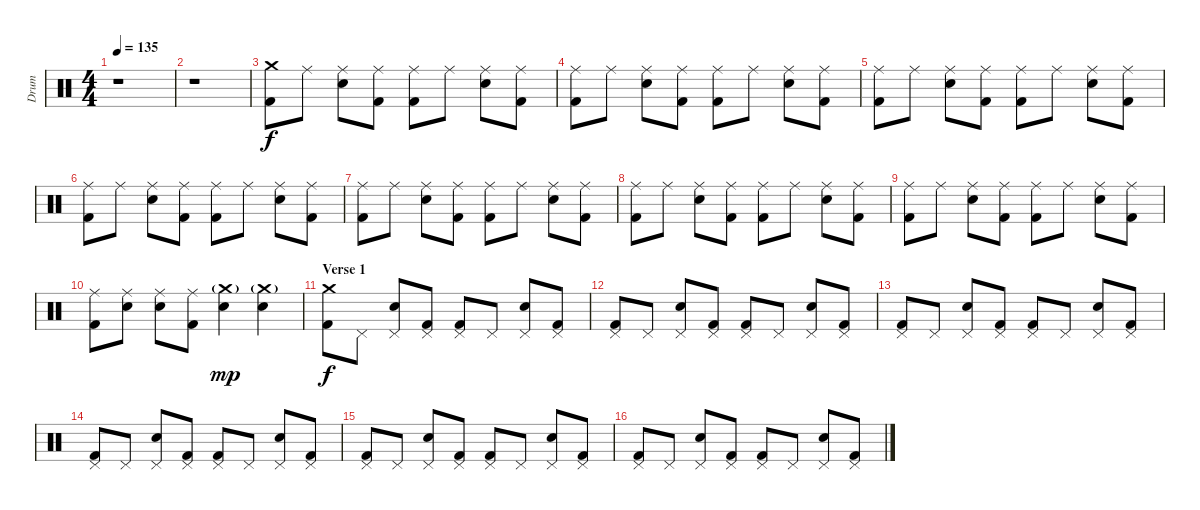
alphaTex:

\track ("Drum" "Drum") {instrument percussion}
\staff {score}
\articulation defaults
\ts (4 4)
\tempo 135
\clef neutral
\ks c
r.1{dy f} |
r.1 |
("Crash medium (hit)" "Kick (hit) 2").8 "Ride (middle)".8 ("Ride (middle)" "Snare (hit) 2").8 ("Ride (middle)" "Kick (hit) 2").8 ("Ride (middle)" "Kick (hit) 2").8 "Ride (middle)".8 ("Ride (middle)" "Snare (hit) 2").8 ("Ride (middle)" "Kick (hit) 2").8 |
("Ride (middle)" "Kick (hit) 2").8 "Ride (middle)".8 ("Ride (middle)" "Snare (hit) 2").8 ("Ride (middle)" "Kick (hit) 2").8 ("Ride (middle)" "Kick (hit) 2").8 "Ride (middle)".8 ("Ride (middle)" "Snare (hit) 2").8 ("Ride (middle)" "Kick (hit) 2").8 |
("Ride (middle)" "Kick (hit) 2").8 "Ride (middle)".8 ("Ride (middle)" "Snare (hit) 2").8 ("Ride (middle)" "Kick (hit) 2").8 ("Ride (middle)" "Kick (hit) 2").8 "Ride (middle)".8 ("Ride (middle)" "Snare (hit) 2").8 ("Ride (middle)" "Kick (hit) 2").8 |
("Ride (middle)" "Kick (hit) 2").8 "Ride (middle)".8 ("Ride (middle)" "Snare (hit) 2").8 ("Ride (middle)" "Kick (hit) 2").8 ("Ride (middle)" "Kick (hit) 2").8 "Ride (middle)".8 ("Ride (middle)" "Snare (hit) 2").8 ("Ride (middle)" "Kick (hit) 2").8 |
("Ride (middle)" "Kick (hit) 2").8 "Ride (middle)".8 ("Ride (middle)" "Snare (hit) 2").8 ("Ride (middle)" "Kick (hit) 2").8 ("Ride (middle)" "Kick (hit) 2").8 "Ride (middle)".8 ("Ride (middle)" "Snare (hit) 2").8 ("Ride (middle)" "Kick (hit) 2").8 |
("Ride (middle)" "Kick (hit) 2").8 "Ride (middle)".8 ("Ride (middle)" "Snare (hit) 2").8 ("Ride (middle)" "Kick (hit) 2").8 ("Ride (middle)" "Kick (hit) 2").8 "Ride (middle)".8 ("Ride (middle)" "Snare (hit) 2").8 ("Ride (middle)" "Kick (hit) 2").8 |
("Ride (middle)" "Kick (hit) 2").8 "Ride (middle)".8 ("Ride (middle)" "Snare (hit) 2").8 ("Ride (middle)" "Kick (hit) 2").8 ("Ride (middle)" "Kick (hit) 2").8 "Ride (middle)".8 ("Ride (middle)" "Snare (hit) 2").8 ("Ride (middle)" "Kick (hit) 2").8 |
("Ride (middle)" "Kick (hit) 2").8 ("Ride (middle)" "Snare (hit) 2").8 ("Ride (middle)" "Snare (hit) 2").8 ("Ride (middle)" "Kick (hit) 2").8 ("Crash medium (hit)"{g} "Snare (hit) 2").4{dy mp} ("Crash medium (hit)"{g} "Snare (hit) 2").4 |
\section ("" "Verse 1")
("Crash medium (hit)" "Kick (hit) 2").8{dy f} "Pedal Hi-Hat (hit)".8 ("Pedal Hi-Hat (hit)" "Snare (hit) 2").8 ("Pedal Hi-Hat (hit)" "Kick (hit) 2").8 ("Pedal Hi-Hat (hit)" "Kick (hit) 2").8 "Pedal Hi-Hat (hit)".8 ("Pedal Hi-Hat (hit)" "Snare (hit) 2").8 ("Pedal Hi-Hat (hit)" "Kick (hit) 2").8 |
("Pedal Hi-Hat (hit)" "Kick (hit) 2").8 "Pedal Hi-Hat (hit)".8 ("Pedal Hi-Hat (hit)" "Snare (hit) 2").8 ("Pedal Hi-Hat (hit)" "Kick (hit) 2").8 ("Pedal Hi-Hat (hit)" "Kick (hit) 2").8 "Pedal Hi-Hat (hit)".8 ("Pedal Hi-Hat (hit)" "Snare (hit) 2").8 ("Pedal Hi-Hat (hit)" "Kick (hit) 2").8 |
("Pedal Hi-Hat (hit)" "Kick (hit) 2").8 "Pedal Hi-Hat (hit)".8 ("Pedal Hi-Hat (hit)" "Snare (hit) 2").8 ("Pedal Hi-Hat (hit)" "Kick (hit) 2").8 ("Pedal Hi-Hat (hit)" "Kick (hit) 2").8 "Pedal Hi-Hat (hit)".8 ("Pedal Hi-Hat (hit)" "Snare (hit) 2").8 ("Pedal Hi-Hat (hit)" "Kick (hit) 2").8 |
("Pedal Hi-Hat (hit)" "Kick (hit) 2").8 "Pedal Hi-Hat (hit)".8 ("Pedal Hi-Hat (hit)" "Snare (hit) 2").8 ("Pedal Hi-Hat (hit)" "Kick (hit) 2").8 ("Pedal Hi-Hat (hit)" "Kick (hit) 2").8 "Pedal Hi-Hat (hit)".8 ("Pedal Hi-Hat (hit)" "Snare (hit) 2").8 ("Pedal Hi-Hat (hit)" "Kick (hit) 2").8 |
("Pedal Hi-Hat (hit)" "Kick (hit) 2").8 "Pedal Hi-Hat (hit)".8 ("Pedal Hi-Hat (hit)" "Snare (hit) 2").8 ("Pedal Hi-Hat (hit)" "Kick (hit) 2").8 ("Pedal Hi-Hat (hit)" "Kick (hit) 2").8 "Pedal Hi-Hat (hit)".8 ("Pedal Hi-Hat (hit)" "Snare (hit) 2").8 ("Pedal Hi-Hat (hit)" "Kick (hit) 2").8 |
("Pedal Hi-Hat (hit)" "Kick (hit) 2").8 "Pedal Hi-Hat (hit)".8 ("Pedal Hi-Hat (hit)" "Snare (hit) 2").8 ("Pedal Hi-Hat (hit)" "Kick (hit) 2").8 ("Pedal Hi-Hat (hit)" "Kick (hit) 2").8 "Pedal Hi-Hat (hit)".8 ("Pedal Hi-Hat (hit)" "Snare (hit) 2").8 ("Pedal Hi-Hat (hit)" "Kick (hit) 2").8
